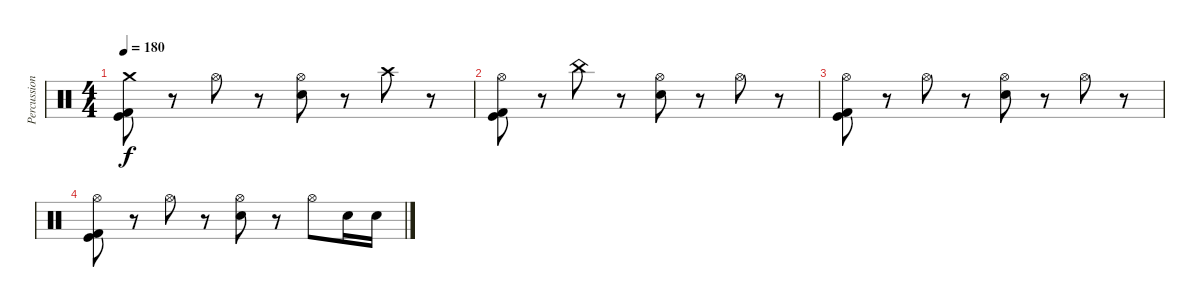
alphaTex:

\track ("Percussions" "Percussion") {instrument percussion}
\staff {score}
\articulation defaults
\ts (4 4)
\tempo 180
\clef neutral
\ks c
("Crash medium (hit)" "Kick (hit) 2" "Kick (hit)").8{dy f} r.8 "Hi-Hat (open)".8 r.8 ("Hi-Hat (open)" "Electric Snare (hit)").8 r.8 "Crash high (hit)".8 r.8 |
("Hi-Hat (open)" "Kick (hit) 2" "Kick (hit)").8 r.8 "China (hit)".8 r.8 ("Hi-Hat (open)" "Electric Snare (hit)").8 r.8 "Hi-Hat (open)".8 r.8 |
("Hi-Hat (open)" "Kick (hit) 2" "Kick (hit)").8 r.8 "Hi-Hat (open)".8 r.8 ("Hi-Hat (open)" "Electric Snare (hit)").8 r.8 "Hi-Hat (open)".8 r.8 |
("Hi-Hat (open)" "Kick (hit) 2" "Kick (hit)").8 r.8 "Hi-Hat (open)".8 r.8 ("Hi-Hat (open)" "Electric Snare (hit)").8 r.8 "Hi-Hat (open)".8 "Electric Snare (hit)".16 "Electric Snare (hit)".16
